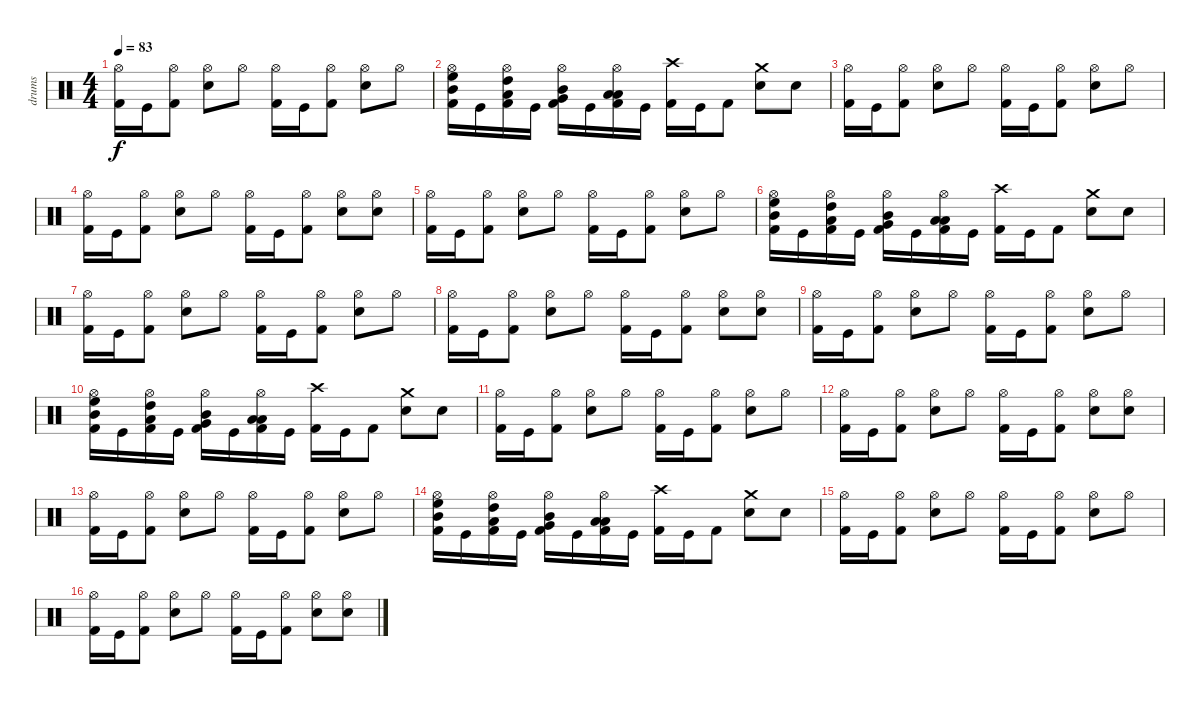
\track ("drums" "drums") {instrument percussion}
\staff {score}
\articulation defaults
\ts (4 4)
\tempo 83
\clef neutral
\ks c
("Hi-Hat (open)" "Kick (hit) 2").16{dy f} "Kick (hit)".16 ("Kick (hit) 2" "Hi-Hat (open)").8 ("Electric Snare (hit)" "Hi-Hat (open)").8 "Hi-Hat (open)".8 ("Kick (hit) 2" "Hi-Hat (open)").16 "Kick (hit)".16 ("Kick (hit) 2" "Hi-Hat (open)").8 ("Electric Snare (hit)" "Hi-Hat (open)").8 "Hi-Hat (open)".8 |
("Kick (hit) 2" "Mid Tom (hit)" "High Floor Tom (hit)" "Hi-Hat (open)").16 "Kick (hit)".16 ("Kick (hit) 2" "Low Tom (hit)" "High Tom (hit)" "Hi-Hat (open)").16 "Kick (hit)".16 ("Kick (hit) 2" "Very Low Tom (hit)" "Mid Tom (hit)" "Hi-Hat (open)").16 "Kick (hit)".16 ("Kick (hit) 2" "Low Floor Tom (hit)" "Low Tom (hit)" "Hi-Hat (open)").16 "Kick (hit)".16 ("Kick (hit) 2" "Crash high (hit)").16 "Kick (hit)".16 "Kick (hit) 2".8 ("Electric Snare (hit)" "Crash medium (hit)").8 "Snare (hit) 2".8 |
("Hi-Hat (open)" "Kick (hit) 2").16 "Kick (hit)".16 ("Kick (hit) 2" "Hi-Hat (open)").8 ("Electric Snare (hit)" "Hi-Hat (open)").8 "Hi-Hat (open)".8 ("Kick (hit) 2" "Hi-Hat (open)").16 "Kick (hit)".16 ("Kick (hit) 2" "Hi-Hat (open)").8 ("Electric Snare (hit)" "Hi-Hat (open)").8 "Hi-Hat (open)".8 |
("Kick (hit) 2" "Hi-Hat (open)").16 "Kick (hit)".16 ("Kick (hit) 2" "Hi-Hat (open)").8 ("Electric Snare (hit)" "Hi-Hat (open)").8 "Hi-Hat (open)".8 ("Kick (hit) 2" "Hi-Hat (open)").16 "Kick (hit)".16 ("Kick (hit) 2" "Hi-Hat (open)").8 ("Electric Snare (hit)" "Hi-Hat (open)").8 ("Snare (hit) 2" "Hi-Hat (open)").8 |
("Hi-Hat (open)" "Kick (hit) 2").16 "Kick (hit)".16 ("Kick (hit) 2" "Hi-Hat (open)").8 ("Electric Snare (hit)" "Hi-Hat (open)").8 "Hi-Hat (open)".8 ("Kick (hit) 2" "Hi-Hat (open)").16 "Kick (hit)".16 ("Kick (hit) 2" "Hi-Hat (open)").8 ("Electric Snare (hit)" "Hi-Hat (open)").8 "Hi-Hat (open)".8 |
("Kick (hit) 2" "Mid Tom (hit)" "High Floor Tom (hit)" "Hi-Hat (open)").16 "Kick (hit)".16 ("Kick (hit) 2" "Low Tom (hit)" "High Tom (hit)" "Hi-Hat (open)").16 "Kick (hit)".16 ("Kick (hit) 2" "Very Low Tom (hit)" "Mid Tom (hit)" "Hi-Hat (open)").16 "Kick (hit)".16 ("Kick (hit) 2" "Low Floor Tom (hit)" "Low Tom (hit)" "Hi-Hat (open)").16 "Kick (hit)".16 ("Kick (hit) 2" "Crash high (hit)").16 "Kick (hit)".16 "Kick (hit) 2".8 ("Electric Snare (hit)" "Crash medium (hit)").8 "Snare (hit) 2".8 |
("Hi-Hat (open)" "Kick (hit) 2").16 "Kick (hit)".16 ("Kick (hit) 2" "Hi-Hat (open)").8 ("Electric Snare (hit)" "Hi-Hat (open)").8 "Hi-Hat (open)".8 ("Kick (hit) 2" "Hi-Hat (open)").16 "Kick (hit)".16 ("Kick (hit) 2" "Hi-Hat (open)").8 ("Electric Snare (hit)" "Hi-Hat (open)").8 "Hi-Hat (open)".8 |
("Kick (hit) 2" "Hi-Hat (open)").16 "Kick (hit)".16 ("Kick (hit) 2" "Hi-Hat (open)").8 ("Electric Snare (hit)" "Hi-Hat (open)").8 "Hi-Hat (open)".8 ("Kick (hit) 2" "Hi-Hat (open)").16 "Kick (hit)".16 ("Kick (hit) 2" "Hi-Hat (open)").8 ("Electric Snare (hit)" "Hi-Hat (open)").8 ("Snare (hit) 2" "Hi-Hat (open)").8 |
("Hi-Hat (open)" "Kick (hit) 2").16 "Kick (hit)".16 ("Kick (hit) 2" "Hi-Hat (open)").8 ("Electric Snare (hit)" "Hi-Hat (open)").8 "Hi-Hat (open)".8 ("Kick (hit) 2" "Hi-Hat (open)").16 "Kick (hit)".16 ("Kick (hit) 2" "Hi-Hat (open)").8 ("Electric Snare (hit)" "Hi-Hat (open)").8 "Hi-Hat (open)".8 |
("Kick (hit) 2" "Mid Tom (hit)" "High Floor Tom (hit)" "Hi-Hat (open)").16 "Kick (hit)".16 ("Kick (hit) 2" "Low Tom (hit)" "High Tom (hit)" "Hi-Hat (open)").16 "Kick (hit)".16 ("Kick (hit) 2" "Very Low Tom (hit)" "Mid Tom (hit)" "Hi-Hat (open)").16 "Kick (hit)".16 ("Kick (hit) 2" "Low Floor Tom (hit)" "Low Tom (hit)" "Hi-Hat (open)").16 "Kick (hit)".16 ("Kick (hit) 2" "Crash high (hit)").16 "Kick (hit)".16 "Kick (hit) 2".8 ("Electric Snare (hit)" "Crash medium (hit)").8 "Snare (hit) 2".8 |
("Hi-Hat (open)" "Kick (hit) 2").16 "Kick (hit)".16 ("Kick (hit) 2" "Hi-Hat (open)").8 ("Electric Snare (hit)" "Hi-Hat (open)").8 "Hi-Hat (open)".8 ("Kick (hit) 2" "Hi-Hat (open)").16 "Kick (hit)".16 ("Kick (hit) 2" "Hi-Hat (open)").8 ("Electric Snare (hit)" "Hi-Hat (open)").8 "Hi-Hat (open)".8 |
("Kick (hit) 2" "Hi-Hat (open)").16 "Kick (hit)".16 ("Kick (hit) 2" "Hi-Hat (open)").8 ("Electric Snare (hit)" "Hi-Hat (open)").8 "Hi-Hat (open)".8 ("Kick (hit) 2" "Hi-Hat (open)").16 "Kick (hit)".16 ("Kick (hit) 2" "Hi-Hat (open)").8 ("Electric Snare (hit)" "Hi-Hat (open)").8 ("Snare (hit) 2" "Hi-Hat (open)").8 |
("Hi-Hat (open)" "Kick (hit) 2").16 "Kick (hit)".16 ("Kick (hit) 2" "Hi-Hat (open)").8 ("Electric Snare (hit)" "Hi-Hat (open)").8 "Hi-Hat (open)".8 ("Kick (hit) 2" "Hi-Hat (open)").16 "Kick (hit)".16 ("Kick (hit) 2" "Hi-Hat (open)").8 ("Electric Snare (hit)" "Hi-Hat (open)").8 "Hi-Hat (open)".8 |
("Kick (hit) 2" "Mid Tom (hit)" "High Floor Tom (hit)" "Hi-Hat (open)").16 "Kick (hit)".16 ("Kick (hit) 2" "Low Tom (hit)" "High Tom (hit)" "Hi-Hat (open)").16 "Kick (hit)".16 ("Kick (hit) 2" "Very Low Tom (hit)" "Mid Tom (hit)" "Hi-Hat (open)").16 "Kick (hit)".16 ("Kick (hit) 2" "Low Floor Tom (hit)" "Low Tom (hit)" "Hi-Hat (open)").16 "Kick (hit)".16 ("Kick (hit) 2" "Crash high (hit)").16 "Kick (hit)".16 "Kick (hit) 2".8 ("Electric Snare (hit)" "Crash medium (hit)").8 "Snare (hit) 2".8 |
("Hi-Hat (open)" "Kick (hit) 2").16 "Kick (hit)".16 ("Kick (hit) 2" "Hi-Hat (open)").8 ("Electric Snare (hit)" "Hi-Hat (open)").8 "Hi-Hat (open)".8 ("Kick (hit) 2" "Hi-Hat (open)").16 "Kick (hit)".16 ("Kick (hit) 2" "Hi-Hat (open)").8 ("Electric Snare (hit)" "Hi-Hat (open)").8 "Hi-Hat (open)".8 |
("Kick (hit) 2" "Hi-Hat (open)").16 "Kick (hit)".16 ("Kick (hit) 2" "Hi-Hat (open)").8 ("Electric Snare (hit)" "Hi-Hat (open)").8 "Hi-Hat (open)".8 ("Kick (hit) 2" "Hi-Hat (open)").16 "Kick (hit)".16 ("Kick (hit) 2" "Hi-Hat (open)").8 ("Electric Snare (hit)" "Hi-Hat (open)").8 ("Snare (hit) 2" "Hi-Hat (open)").8
